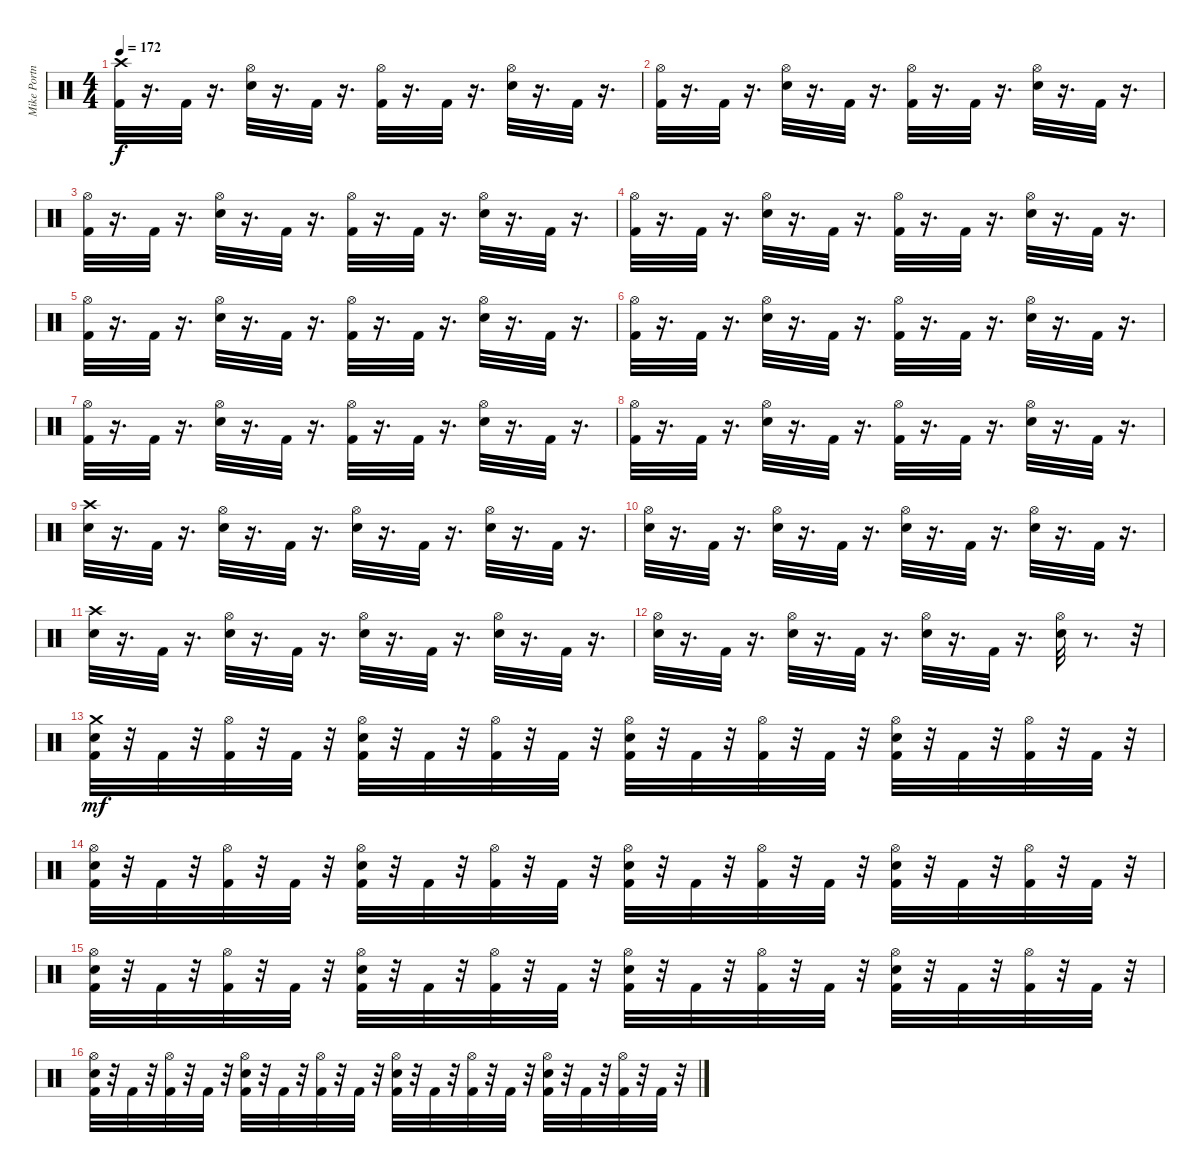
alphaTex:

\track ("Mike Portnoy" "Mike Portn") {instrument percussion}
\staff {score}
\articulation defaults
\ts (4 4)
\tempo 172
\clef neutral
\ks c
("Crash high (hit)" "Kick (hit) 2").32{dy f} r.16{d} "Kick (hit) 2".32 r.16{d} ("Hi-Hat (open)" "Snare (hit) 2").32 r.16{d} "Kick (hit) 2".32 r.16{d} ("Hi-Hat (open)" "Kick (hit) 2").32 r.16{d} "Kick (hit) 2".32 r.16{d} ("Hi-Hat (open)" "Snare (hit) 2").32 r.16{d} "Kick (hit) 2".32 r.16{d} |
("Hi-Hat (open)" "Kick (hit) 2").32 r.16{d} "Kick (hit) 2".32 r.16{d} ("Snare (hit) 2" "Hi-Hat (open)").32 r.16{d} "Kick (hit) 2".32 r.16{d} ("Kick (hit) 2" "Hi-Hat (open)").32 r.16{d} "Kick (hit) 2".32 r.16{d} ("Snare (hit) 2" "Hi-Hat (open)").32 r.16{d} "Kick (hit) 2".32 r.16{d} |
("Hi-Hat (open)" "Kick (hit) 2").32 r.16{d} "Kick (hit) 2".32 r.16{d} ("Snare (hit) 2" "Hi-Hat (open)").32 r.16{d} "Kick (hit) 2".32 r.16{d} ("Kick (hit) 2" "Hi-Hat (open)").32 r.16{d} "Kick (hit) 2".32 r.16{d} ("Snare (hit) 2" "Hi-Hat (open)").32 r.16{d} "Kick (hit) 2".32 r.16{d} |
("Hi-Hat (open)" "Kick (hit) 2").32 r.16{d} "Kick (hit) 2".32 r.16{d} ("Snare (hit) 2" "Hi-Hat (open)").32 r.16{d} "Kick (hit) 2".32 r.16{d} ("Kick (hit) 2" "Hi-Hat (open)").32 r.16{d} "Kick (hit) 2".32 r.16{d} ("Snare (hit) 2" "Hi-Hat (open)").32 r.16{d} "Kick (hit) 2".32 r.16{d} |
("Hi-Hat (open)" "Kick (hit) 2").32 r.16{d} "Kick (hit) 2".32 r.16{d} ("Snare (hit) 2" "Hi-Hat (open)").32 r.16{d} "Kick (hit) 2".32 r.16{d} ("Kick (hit) 2" "Hi-Hat (open)").32 r.16{d} "Kick (hit) 2".32 r.16{d} ("Snare (hit) 2" "Hi-Hat (open)").32 r.16{d} "Kick (hit) 2".32 r.16{d} |
("Hi-Hat (open)" "Kick (hit) 2").32 r.16{d} "Kick (hit) 2".32 r.16{d} ("Snare (hit) 2" "Hi-Hat (open)").32 r.16{d} "Kick (hit) 2".32 r.16{d} ("Kick (hit) 2" "Hi-Hat (open)").32 r.16{d} "Kick (hit) 2".32 r.16{d} ("Snare (hit) 2" "Hi-Hat (open)").32 r.16{d} "Kick (hit) 2".32 r.16{d} |
("Hi-Hat (open)" "Kick (hit) 2").32 r.16{d} "Kick (hit) 2".32 r.16{d} ("Snare (hit) 2" "Hi-Hat (open)").32 r.16{d} "Kick (hit) 2".32 r.16{d} ("Kick (hit) 2" "Hi-Hat (open)").32 r.16{d} "Kick (hit) 2".32 r.16{d} ("Snare (hit) 2" "Hi-Hat (open)").32 r.16{d} "Kick (hit) 2".32 r.16{d} |
("Hi-Hat (open)" "Kick (hit) 2").32 r.16{d} "Kick (hit) 2".32 r.16{d} ("Snare (hit) 2" "Hi-Hat (open)").32 r.16{d} "Kick (hit) 2".32 r.16{d} ("Kick (hit) 2" "Hi-Hat (open)").32 r.16{d} "Kick (hit) 2".32 r.16{d} ("Snare (hit) 2" "Hi-Hat (open)").32 r.16{d} "Kick (hit) 2".32 r.16{d} |
("Snare (hit) 2" "Crash high (hit)").32 r.16{d} "Kick (hit) 2".32 r.16{d} ("Snare (hit) 2" "Hi-Hat (open)").32 r.16{d} "Kick (hit) 2".32 r.16{d} ("Snare (hit) 2" "Hi-Hat (open)").32 r.16{d} "Kick (hit) 2".32 r.16{d} ("Snare (hit) 2" "Hi-Hat (open)").32 r.16{d} "Kick (hit) 2".32 r.16{d} |
("Snare (hit) 2" "Hi-Hat (open)").32 r.16{d} "Kick (hit) 2".32 r.16{d} ("Snare (hit) 2" "Hi-Hat (open)").32 r.16{d} "Kick (hit) 2".32 r.16{d} ("Snare (hit) 2" "Hi-Hat (open)").32 r.16{d} "Kick (hit) 2".32 r.16{d} ("Snare (hit) 2" "Hi-Hat (open)").32 r.16{d} "Kick (hit) 2".32 r.16{d} |
("Crash high (hit)" "Snare (hit) 2").32 r.16{d} "Kick (hit) 2".32 r.16{d} ("Snare (hit) 2" "Hi-Hat (open)").32 r.16{d} "Kick (hit) 2".32 r.16{d} ("Snare (hit) 2" "Hi-Hat (open)").32 r.16{d} "Kick (hit) 2".32 r.16{d} ("Snare (hit) 2" "Hi-Hat (open)").32 r.16{d} "Kick (hit) 2".32 r.16{d} |
("Hi-Hat (open)" "Snare (hit) 2").32 r.16{d} "Kick (hit) 2".32 r.16{d} ("Snare (hit) 2" "Hi-Hat (open)").32 r.16{d} "Kick (hit) 2".32 r.16{d} ("Snare (hit) 2" "Hi-Hat (open)").32 r.16{d} "Kick (hit) 2".32 r.16{d} ("Snare (hit) 2" "Hi-Hat (open)").32 r.8{d} r.32 |
("Snare (hit) 2" "Crash medium (hit)" "Kick (hit) 2").32{dy mf} r.32 "Kick (hit) 2".32 r.32 ("Hi-Hat (open)" "Kick (hit) 2").32 r.32 "Kick (hit) 2".32 r.32 ("Kick (hit) 2" "Snare (hit) 2" "Hi-Hat (open)").32 r.32 "Kick (hit) 2".32 r.32 ("Hi-Hat (open)" "Kick (hit) 2").32 r.32 "Kick (hit) 2".32 r.32 ("Snare (hit) 2" "Kick (hit) 2" "Hi-Hat (open)").32 r.32 "Kick (hit) 2".32 r.32 ("Hi-Hat (open)" "Kick (hit) 2").32 r.32 "Kick (hit) 2".32 r.32 ("Kick (hit) 2" "Snare (hit) 2" "Hi-Hat (open)").32 r.32 "Kick (hit) 2".32 r.32 ("Hi-Hat (open)" "Kick (hit) 2").32 r.32 "Kick (hit) 2".32 r.32 |
("Snare (hit) 2" "Hi-Hat (open)" "Kick (hit) 2").32 r.32 "Kick (hit) 2".32 r.32 ("Hi-Hat (open)" "Kick (hit) 2").32 r.32 "Kick (hit) 2".32 r.32 ("Kick (hit) 2" "Snare (hit) 2" "Hi-Hat (open)").32 r.32 "Kick (hit) 2".32 r.32 ("Hi-Hat (open)" "Kick (hit) 2").32 r.32 "Kick (hit) 2".32 r.32 ("Snare (hit) 2" "Kick (hit) 2" "Hi-Hat (open)").32 r.32 "Kick (hit) 2".32 r.32 ("Hi-Hat (open)" "Kick (hit) 2").32 r.32 "Kick (hit) 2".32 r.32 ("Kick (hit) 2" "Snare (hit) 2" "Hi-Hat (open)").32 r.32 "Kick (hit) 2".32 r.32 ("Hi-Hat (open)" "Kick (hit) 2").32 r.32 "Kick (hit) 2".32 r.32 |
("Snare (hit) 2" "Hi-Hat (open)" "Kick (hit) 2").32 r.32 "Kick (hit) 2".32 r.32 ("Hi-Hat (open)" "Kick (hit) 2").32 r.32 "Kick (hit) 2".32 r.32 ("Kick (hit) 2" "Snare (hit) 2" "Hi-Hat (open)").32 r.32 "Kick (hit) 2".32 r.32 ("Hi-Hat (open)" "Kick (hit) 2").32 r.32 "Kick (hit) 2".32 r.32 ("Snare (hit) 2" "Kick (hit) 2" "Hi-Hat (open)").32 r.32 "Kick (hit) 2".32 r.32 ("Hi-Hat (open)" "Kick (hit) 2").32 r.32 "Kick (hit) 2".32 r.32 ("Kick (hit) 2" "Snare (hit) 2" "Hi-Hat (open)").32 r.32 "Kick (hit) 2".32 r.32 ("Hi-Hat (open)" "Kick (hit) 2").32 r.32 "Kick (hit) 2".32 r.32 |
("Snare (hit) 2" "Hi-Hat (open)" "Kick (hit) 2").32 r.32 "Kick (hit) 2".32 r.32 ("Hi-Hat (open)" "Kick (hit) 2").32 r.32 "Kick (hit) 2".32 r.32 ("Kick (hit) 2" "Snare (hit) 2" "Hi-Hat (open)").32 r.32 "Kick (hit) 2".32 r.32 ("Hi-Hat (open)" "Kick (hit) 2").32 r.32 "Kick (hit) 2".32 r.32 ("Snare (hit) 2" "Kick (hit) 2" "Hi-Hat (open)").32 r.32 "Kick (hit) 2".32 r.32 ("Hi-Hat (open)" "Kick (hit) 2").32 r.32 "Kick (hit) 2".32 r.32 ("Kick (hit) 2" "Snare (hit) 2" "Hi-Hat (open)").32 r.32 "Kick (hit) 2".32 r.32 ("Hi-Hat (open)" "Kick (hit) 2").32 r.32 "Kick (hit) 2".32 r.32
